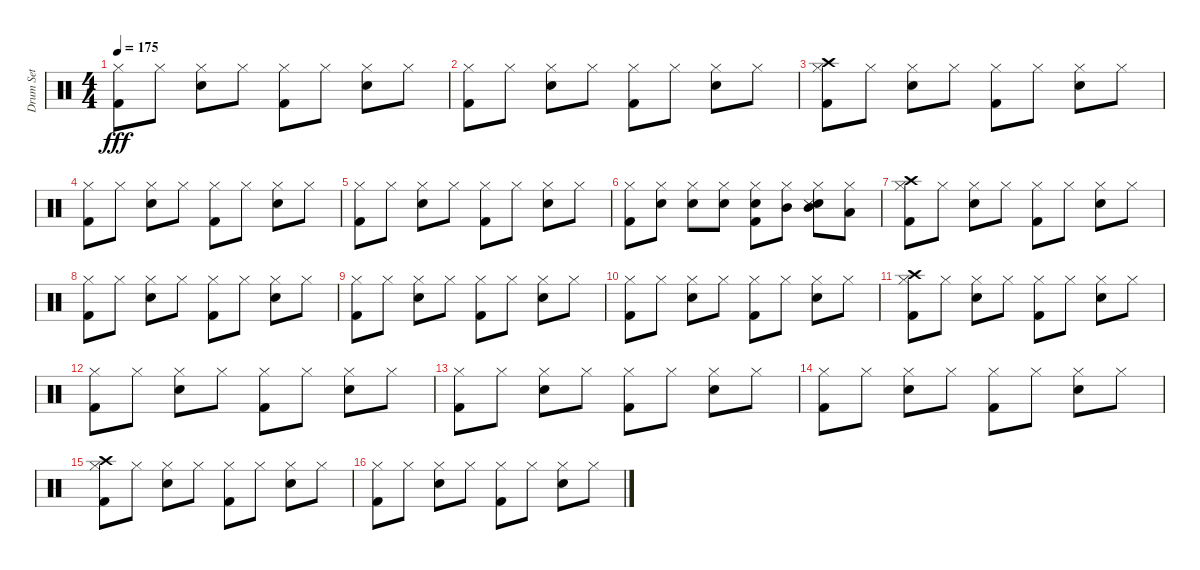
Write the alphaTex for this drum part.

\track ("Drum Set" "Drum Set") {instrument percussion}
\staff {score}
\articulation defaults
\ts (4 4)
\tempo 175
\clef neutral
\ks c
("Kick (hit) 2" "Hi-Hat (closed)").8{dy fff} "Hi-Hat (closed)".8 ("Electric Snare (hit)" "Hi-Hat (closed)").8 "Hi-Hat (closed)".8 ("Kick (hit) 2" "Hi-Hat (closed)").8 "Hi-Hat (closed)".8 ("Electric Snare (hit)" "Hi-Hat (closed)").8 "Hi-Hat (closed)".8 |
("Kick (hit) 2" "Hi-Hat (closed)").8 "Hi-Hat (closed)".8 ("Electric Snare (hit)" "Hi-Hat (closed)").8 "Hi-Hat (closed)".8 ("Kick (hit) 2" "Hi-Hat (closed)").8 "Hi-Hat (closed)".8 ("Electric Snare (hit)" "Hi-Hat (closed)").8 "Hi-Hat (closed)".8 |
("Kick (hit) 2" "Crash high (hit)" "Hi-Hat (closed)").8 "Hi-Hat (closed)".8 ("Electric Snare (hit)" "Hi-Hat (closed)").8 "Hi-Hat (closed)".8 ("Kick (hit) 2" "Hi-Hat (closed)").8 "Hi-Hat (closed)".8 ("Electric Snare (hit)" "Hi-Hat (closed)").8 "Hi-Hat (closed)".8 |
("Kick (hit) 2" "Hi-Hat (closed)").8 "Hi-Hat (closed)".8 ("Electric Snare (hit)" "Hi-Hat (closed)").8 "Hi-Hat (closed)".8 ("Kick (hit) 2" "Hi-Hat (closed)").8 "Hi-Hat (closed)".8 ("Electric Snare (hit)" "Hi-Hat (closed)").8 "Hi-Hat (closed)".8 |
("Kick (hit) 2" "Hi-Hat (closed)").8 "Hi-Hat (closed)".8 ("Electric Snare (hit)" "Hi-Hat (closed)").8 "Hi-Hat (closed)".8 ("Kick (hit) 2" "Hi-Hat (closed)").8 "Hi-Hat (closed)".8 ("Electric Snare (hit)" "Hi-Hat (closed)").8 "Hi-Hat (closed)".8 |
("Kick (hit) 2" "Hi-Hat (closed)").8 ("Hi-Hat (closed)" "Electric Snare (hit)").8 ("Electric Snare (hit)" "Hi-Hat (closed)").8 ("Electric Snare (hit)" "Hi-Hat (closed)").8 ("Electric Snare (hit)" "Kick (hit) 2" "Hi-Hat (closed)").8 ("Mid Tom (hit)" "Hi-Hat (closed)").8 ("Electric Snare (hit)" "Snare (side stick) 3" "Mid Tom (hit)" "Hi-Hat (closed)").8 ("Low Tom (hit)" "Hi-Hat (closed)").8 |
("Kick (hit) 2" "Crash high (hit)" "Hi-Hat (closed)").8 "Hi-Hat (closed)".8 ("Electric Snare (hit)" "Hi-Hat (closed)").8 "Hi-Hat (closed)".8 ("Kick (hit) 2" "Hi-Hat (closed)").8 "Hi-Hat (closed)".8 ("Electric Snare (hit)" "Hi-Hat (closed)").8 "Hi-Hat (closed)".8 |
("Kick (hit) 2" "Hi-Hat (closed)").8 "Hi-Hat (closed)".8 ("Electric Snare (hit)" "Hi-Hat (closed)").8 "Hi-Hat (closed)".8 ("Kick (hit) 2" "Hi-Hat (closed)").8 "Hi-Hat (closed)".8 ("Electric Snare (hit)" "Hi-Hat (closed)").8 "Hi-Hat (closed)".8 |
("Kick (hit) 2" "Hi-Hat (closed)").8 "Hi-Hat (closed)".8 ("Electric Snare (hit)" "Hi-Hat (closed)").8 "Hi-Hat (closed)".8 ("Kick (hit) 2" "Hi-Hat (closed)").8 "Hi-Hat (closed)".8 ("Electric Snare (hit)" "Hi-Hat (closed)").8 "Hi-Hat (closed)".8 |
("Kick (hit) 2" "Hi-Hat (closed)").8 "Hi-Hat (closed)".8 ("Electric Snare (hit)" "Hi-Hat (closed)").8 "Hi-Hat (closed)".8 ("Kick (hit) 2" "Hi-Hat (closed)").8 "Hi-Hat (closed)".8 ("Electric Snare (hit)" "Hi-Hat (closed)").8 "Hi-Hat (closed)".8 |
("Kick (hit) 2" "Hi-Hat (closed)" "Crash high (hit)").8 "Hi-Hat (closed)".8 ("Electric Snare (hit)" "Hi-Hat (closed)").8 "Hi-Hat (closed)".8 ("Kick (hit) 2" "Hi-Hat (closed)").8 "Hi-Hat (closed)".8 ("Electric Snare (hit)" "Hi-Hat (closed)").8 "Hi-Hat (closed)".8 |
("Kick (hit) 2" "Hi-Hat (closed)").8 "Hi-Hat (closed)".8 ("Electric Snare (hit)" "Hi-Hat (closed)").8 "Hi-Hat (closed)".8 ("Kick (hit) 2" "Hi-Hat (closed)").8 "Hi-Hat (closed)".8 ("Electric Snare (hit)" "Hi-Hat (closed)").8 "Hi-Hat (closed)".8 |
("Kick (hit) 2" "Hi-Hat (closed)").8 "Hi-Hat (closed)".8 ("Electric Snare (hit)" "Hi-Hat (closed)").8 "Hi-Hat (closed)".8 ("Kick (hit) 2" "Hi-Hat (closed)").8 "Hi-Hat (closed)".8 ("Electric Snare (hit)" "Hi-Hat (closed)").8 "Hi-Hat (closed)".8 |
("Kick (hit) 2" "Hi-Hat (closed)").8 "Hi-Hat (closed)".8 ("Electric Snare (hit)" "Hi-Hat (closed)").8 "Hi-Hat (closed)".8 ("Kick (hit) 2" "Hi-Hat (closed)").8 "Hi-Hat (closed)".8 ("Electric Snare (hit)" "Hi-Hat (closed)").8 "Hi-Hat (closed)".8 |
("Kick (hit) 2" "Hi-Hat (closed)" "Crash high (hit)").8 "Hi-Hat (closed)".8 ("Electric Snare (hit)" "Hi-Hat (closed)").8 "Hi-Hat (closed)".8 ("Kick (hit) 2" "Hi-Hat (closed)").8 "Hi-Hat (closed)".8 ("Electric Snare (hit)" "Hi-Hat (closed)").8 "Hi-Hat (closed)".8 |
("Kick (hit) 2" "Hi-Hat (closed)").8 "Hi-Hat (closed)".8 ("Electric Snare (hit)" "Hi-Hat (closed)").8 "Hi-Hat (closed)".8 ("Kick (hit) 2" "Hi-Hat (closed)").8 "Hi-Hat (closed)".8 ("Electric Snare (hit)" "Hi-Hat (closed)").8 "Hi-Hat (closed)".8
